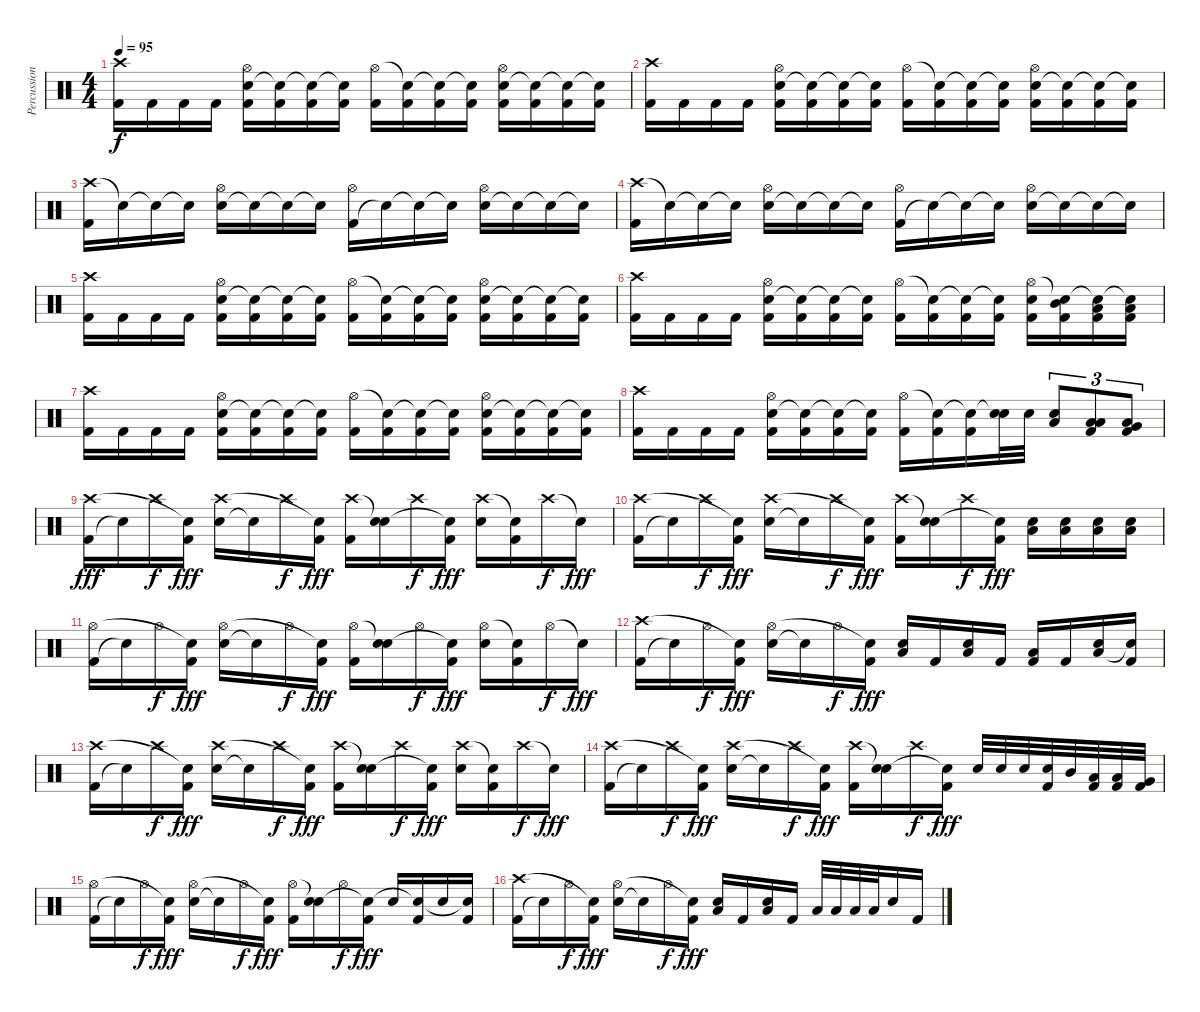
\track ("Percussion" "Percussion") {instrument percussion}
\staff {score}
\articulation defaults
\ts (4 4)
\tempo 95
\clef neutral
\ks c
("Crash high (hit)" "Kick (hit) 2").16{dy f} "Kick (hit) 2".16 "Kick (hit) 2".16 "Kick (hit) 2".16 ("Kick (hit) 2" "Electric Snare (hit)" "Hi-Hat (open)").16 ("Kick (hit) 2" "Snare (hit)"{t}).16 ("Kick (hit) 2" "Snare (hit)"{t}).16 ("Kick (hit) 2" "Snare (hit)"{t}).16 ("Kick (hit) 2" "Hi-Hat (open)").16 ("Kick (hit) 2" "Snare (hit)"{t}).16 ("Kick (hit) 2" "Snare (hit)"{t}).16 ("Kick (hit) 2" "Snare (hit)"{t}).16 ("Kick (hit) 2" "Electric Snare (hit)" "Hi-Hat (open)").16 ("Kick (hit) 2" "Snare (hit)"{t}).16 ("Kick (hit) 2" "Snare (hit)"{t}).16 ("Kick (hit) 2" "Snare (hit)"{t}).16 |
("Crash high (hit)" "Kick (hit) 2").16 "Kick (hit) 2".16 "Kick (hit) 2".16 "Kick (hit) 2".16 ("Kick (hit) 2" "Electric Snare (hit)" "Hi-Hat (open)").16 ("Kick (hit) 2" "Snare (hit)"{t}).16 ("Kick (hit) 2" "Snare (hit)"{t}).16 ("Kick (hit) 2" "Snare (hit)"{t}).16 ("Kick (hit) 2" "Hi-Hat (open)").16 ("Kick (hit) 2" "Snare (hit)"{t}).16 ("Kick (hit) 2" "Snare (hit)"{t}).16 ("Kick (hit) 2" "Snare (hit)"{t}).16 ("Kick (hit) 2" "Electric Snare (hit)" "Hi-Hat (open)").16 ("Kick (hit) 2" "Snare (hit)"{t}).16 ("Kick (hit) 2" "Snare (hit)"{t}).16 ("Kick (hit) 2" "Snare (hit)"{t}).16 |
("Crash high (hit)" "Kick (hit) 2").16 "Snare (hit)"{t}.16 "Snare (hit)"{t}.16 "Snare (hit)"{t}.16 ("Electric Snare (hit)" "Hi-Hat (open)").16 "Snare (hit)"{t}.16 "Snare (hit)"{t}.16 "Snare (hit)"{t}.16 ("Kick (hit) 2" "Hi-Hat (open)").16 "Snare (hit)"{t}.16 "Snare (hit)"{t}.16 "Snare (hit)"{t}.16 ("Electric Snare (hit)" "Hi-Hat (open)").16 "Snare (hit)"{t}.16 "Snare (hit)"{t}.16 "Snare (hit)"{t}.16 |
("Crash high (hit)" "Kick (hit) 2").16 "Snare (hit)"{t}.16 "Snare (hit)"{t}.16 "Snare (hit)"{t}.16 ("Electric Snare (hit)" "Hi-Hat (open)").16 "Snare (hit)"{t}.16 "Snare (hit)"{t}.16 "Snare (hit)"{t}.16 ("Kick (hit) 2" "Hi-Hat (open)").16 "Snare (hit)"{t}.16 "Snare (hit)"{t}.16 "Snare (hit)"{t}.16 ("Electric Snare (hit)" "Hi-Hat (open)").16 "Snare (hit)"{t}.16 "Snare (hit)"{t}.16 "Snare (hit)"{t}.16 |
("Crash high (hit)" "Kick (hit) 2").16 "Kick (hit) 2".16 "Kick (hit) 2".16 "Kick (hit) 2".16 ("Kick (hit) 2" "Electric Snare (hit)" "Hi-Hat (open)").16 ("Kick (hit) 2" "Snare (hit)"{t}).16 ("Kick (hit) 2" "Snare (hit)"{t}).16 ("Kick (hit) 2" "Snare (hit)"{t}).16 ("Kick (hit) 2" "Hi-Hat (open)").16 ("Kick (hit) 2" "Snare (hit)"{t}).16 ("Kick (hit) 2" "Snare (hit)"{t}).16 ("Kick (hit) 2" "Snare (hit)"{t}).16 ("Kick (hit) 2" "Electric Snare (hit)" "Hi-Hat (open)").16 ("Kick (hit) 2" "Snare (hit)"{t}).16 ("Kick (hit) 2" "Snare (hit)"{t}).16 ("Kick (hit) 2" "Snare (hit)"{t}).16 |
("Crash high (hit)" "Kick (hit) 2").16 "Kick (hit) 2".16 "Kick (hit) 2".16 "Kick (hit) 2".16 ("Kick (hit) 2" "Electric Snare (hit)" "Hi-Hat (open)").16 ("Kick (hit) 2" "Snare (hit)"{t}).16 ("Kick (hit) 2" "Snare (hit)"{t}).16 ("Kick (hit) 2" "Snare (hit)"{t}).16 ("Kick (hit) 2" "Hi-Hat (open)").16 ("Kick (hit) 2" "Snare (hit)"{t}).16 ("Kick (hit) 2" "Snare (hit)"{t}).16 ("Kick (hit) 2" "Snare (hit)"{t}).16 ("Kick (hit) 2" "Electric Snare (hit)" "Hi-Hat (open)").16 ("Kick (hit) 2" "Mid Tom (hit)" "Snare (hit)"{t}).16 ("Kick (hit) 2" "Low Tom (hit)" "Snare (hit)"{t}).16 ("Kick (hit) 2" "Low Floor Tom (hit)" "Snare (hit)"{t}).16 |
("Crash high (hit)" "Kick (hit) 2").16 "Kick (hit) 2".16 "Kick (hit) 2".16 "Kick (hit) 2".16 ("Kick (hit) 2" "Electric Snare (hit)" "Hi-Hat (open)").16 ("Kick (hit) 2" "Snare (hit)"{t}).16 ("Kick (hit) 2" "Snare (hit)"{t}).16 ("Kick (hit) 2" "Snare (hit)"{t}).16 ("Kick (hit) 2" "Hi-Hat (open)").16 ("Kick (hit) 2" "Snare (hit)"{t}).16 ("Kick (hit) 2" "Snare (hit)"{t}).16 ("Kick (hit) 2" "Snare (hit)"{t}).16 ("Kick (hit) 2" "Electric Snare (hit)" "Hi-Hat (open)").16 ("Kick (hit) 2" "Snare (hit)"{t}).16 ("Kick (hit) 2" "Snare (hit)"{t}).16 ("Kick (hit) 2" "Snare (hit)"{t}).16 |
("Crash high (hit)" "Kick (hit) 2").16 "Kick (hit) 2".16 "Kick (hit) 2".16 "Kick (hit) 2".16 ("Kick (hit) 2" "Electric Snare (hit)" "Hi-Hat (open)").16 ("Kick (hit) 2" "Snare (hit)"{t}).16 ("Kick (hit) 2" "Snare (hit)"{t}).16 ("Kick (hit) 2" "Snare (hit)"{t}).16 ("Kick (hit) 2" "Hi-Hat (open)").16 ("Kick (hit) 2" "Snare (hit)"{t}).16 ("Kick (hit) 2" "Snare (hit)"{t}).16 ("Electric Snare (hit)" "Snare (hit)"{t}).32 "Electric Snare (hit)".32 ("Electric Snare (hit)" "Low Floor Tom (hit)").8{tu (3 2)} ("Low Tom (hit)" "Kick (hit) 2" "Low Floor Tom (hit)").8{tu (3 2)} ("Very Low Tom (hit)" "Kick (hit) 2" "Low Floor Tom (hit)").8{tu (3 2)} |
("Kick (hit) 2" "Crash high (hit)").16{dy fff} "Snare (hit)"{t}.16 "Crash high (hit)".16{dy f} ("Kick (hit) 2" "Snare (hit)"{t}).16{dy fff} ("Electric Snare (hit)" "Crash high (hit)").16 "Snare (hit)"{t}.16 "Crash high (hit)".16{dy f} ("Kick (hit) 2" "Snare (hit)"{t}).16{dy fff} ("Kick (hit) 2" "Crash high (hit)").16 ("Electric Snare (hit)" "Snare (hit)"{t}).16 "Crash high (hit)".16{dy f} ("Kick (hit) 2" "Snare (hit)"{t}).16{dy fff} ("Electric Snare (hit)" "Crash high (hit)").16 ("Kick (hit) 2" "Snare (hit)"{t}).16 "Crash high (hit)".16{dy f} "Snare (hit)"{t}.16{dy fff} |
("Kick (hit) 2" "Crash high (hit)").16 "Snare (hit)"{t}.16 "Crash high (hit)".16{dy f} ("Kick (hit) 2" "Snare (hit)"{t}).16{dy fff} ("Electric Snare (hit)" "Crash high (hit)").16 "Snare (hit)"{t}.16 "Crash high (hit)".16{dy f} ("Kick (hit) 2" "Snare (hit)"{t}).16{dy fff} ("Kick (hit) 2" "Crash high (hit)").16 ("Electric Snare (hit)" "Snare (hit)"{t}).16 "Crash high (hit)".16{dy f} ("Kick (hit) 2" "Snare (hit)"{t}).16{dy fff} ("Electric Snare (hit)" "Low Floor Tom (hit)").16 ("Electric Snare (hit)" "Low Floor Tom (hit)").16 ("Electric Snare (hit)" "Low Floor Tom (hit)").16 ("Electric Snare (hit)" "Low Floor Tom (hit)").16 |
("Kick (hit) 2" "Hi-Hat (open)").16 "Snare (hit)"{t}.16 "Hi-Hat (open)".16{dy f} ("Kick (hit) 2" "Snare (hit)"{t}).16{dy fff} ("Electric Snare (hit)" "Hi-Hat (open)").16 "Snare (hit)"{t}.16 "Hi-Hat (open)".16{dy f} ("Kick (hit) 2" "Snare (hit)"{t}).16{dy fff} ("Kick (hit) 2" "Hi-Hat (open)").16 ("Electric Snare (hit)" "Snare (hit)"{t}).16 "Hi-Hat (open)".16{dy f} ("Kick (hit) 2" "Snare (hit)"{t}).16{dy fff} ("Electric Snare (hit)" "Hi-Hat (open)").16 ("Kick (hit) 2" "Snare (hit)"{t}).16 "Hi-Hat (open)".16{dy f} "Snare (hit)"{t}.16{dy fff} |
("Kick (hit) 2" "Crash high (hit)").16 "Snare (hit)"{t}.16 "Hi-Hat (open)".16{dy f} ("Kick (hit) 2" "Snare (hit)"{t}).16{dy fff} ("Electric Snare (hit)" "Hi-Hat (open)").16 "Snare (hit)"{t}.16 "Hi-Hat (open)".16{dy f} ("Kick (hit) 2" "Snare (hit)"{t}).16{dy fff} ("Electric Snare (hit)" "Low Floor Tom (hit)").16 "Kick (hit) 2".16 ("Electric Snare (hit)" "Low Floor Tom (hit)").16 "Kick (hit) 2".16 ("Kick (hit) 2" "Low Floor Tom (hit)").16 "Kick (hit) 2".16 ("Electric Snare (hit)" "Low Floor Tom (hit)").16 ("Kick (hit) 2" "Snare (hit)"{t}).16 |
("Kick (hit) 2" "Crash high (hit)").16 "Snare (hit)"{t}.16 "Crash high (hit)".16{dy f} ("Kick (hit) 2" "Snare (hit)"{t}).16{dy fff} ("Electric Snare (hit)" "Crash high (hit)").16 "Snare (hit)"{t}.16 "Crash high (hit)".16{dy f} ("Kick (hit) 2" "Snare (hit)"{t}).16{dy fff} ("Kick (hit) 2" "Crash high (hit)").16 ("Electric Snare (hit)" "Snare (hit)"{t}).16 "Crash high (hit)".16{dy f} ("Kick (hit) 2" "Snare (hit)"{t}).16{dy fff} ("Electric Snare (hit)" "Crash high (hit)").16 ("Kick (hit) 2" "Snare (hit)"{t}).16 "Crash high (hit)".16{dy f} "Snare (hit)"{t}.16{dy fff} |
("Kick (hit) 2" "Crash high (hit)").16 "Snare (hit)"{t}.16 "Crash high (hit)".16{dy f} ("Kick (hit) 2" "Snare (hit)"{t}).16{dy fff} ("Electric Snare (hit)" "Crash high (hit)").16 "Snare (hit)"{t}.16 "Crash high (hit)".16{dy f} ("Kick (hit) 2" "Snare (hit)"{t}).16{dy fff} ("Kick (hit) 2" "Crash high (hit)").16 ("Electric Snare (hit)" "Snare (hit)"{t}).16 "Crash high (hit)".16{dy f} ("Kick (hit) 2" "Snare (hit)"{t}).16{dy fff} "Electric Snare (hit)".32 "Electric Snare (hit)".32 "Electric Snare (hit)".32 ("Electric Snare (hit)" "Kick (hit) 2").32 "Mid Tom (hit)".32 ("Low Tom (hit)" "Kick (hit) 2").32 ("Low Tom (hit)" "Kick (hit) 2").32 ("Very Low Tom (hit)" "Kick (hit) 2").32 |
("Kick (hit) 2" "Hi-Hat (open)").16 "Snare (hit)"{t}.16 "Hi-Hat (open)".16{dy f} ("Kick (hit) 2" "Snare (hit)"{t}).16{dy fff} ("Electric Snare (hit)" "Hi-Hat (open)").16 "Snare (hit)"{t}.16 "Hi-Hat (open)".16{dy f} ("Kick (hit) 2" "Snare (hit)"{t}).16{dy fff} ("Kick (hit) 2" "Hi-Hat (open)").16 ("Electric Snare (hit)" "Snare (hit)"{t}).16 "Hi-Hat (open)".16{dy f} ("Kick (hit) 2" "Snare (hit)"{t}).16{dy fff} "Electric Snare (hit)".16 ("Kick (hit) 2" "Snare (hit)"{t}).16 "Electric Snare (hit)".16 ("Kick (hit) 2" "Snare (hit)"{t}).16 |
("Kick (hit) 2" "Crash high (hit)").16 "Snare (hit)"{t}.16 "Hi-Hat (open)".16{dy f} ("Kick (hit) 2" "Snare (hit)"{t}).16{dy fff} ("Electric Snare (hit)" "Hi-Hat (open)").16 "Snare (hit)"{t}.16 "Hi-Hat (open)".16{dy f} ("Kick (hit) 2" "Snare (hit)"{t}).16{dy fff} ("Electric Snare (hit)" "Low Floor Tom (hit)").16 "Kick (hit) 2".16 ("Electric Snare (hit)" "Low Floor Tom (hit)").16 "Kick (hit) 2".16 "Low Floor Tom (hit)".32 "Low Floor Tom (hit)".32 "Low Floor Tom (hit)".32 "Low Floor Tom (hit)".32 "Electric Snare (hit)".16 "Kick (hit) 2".16
